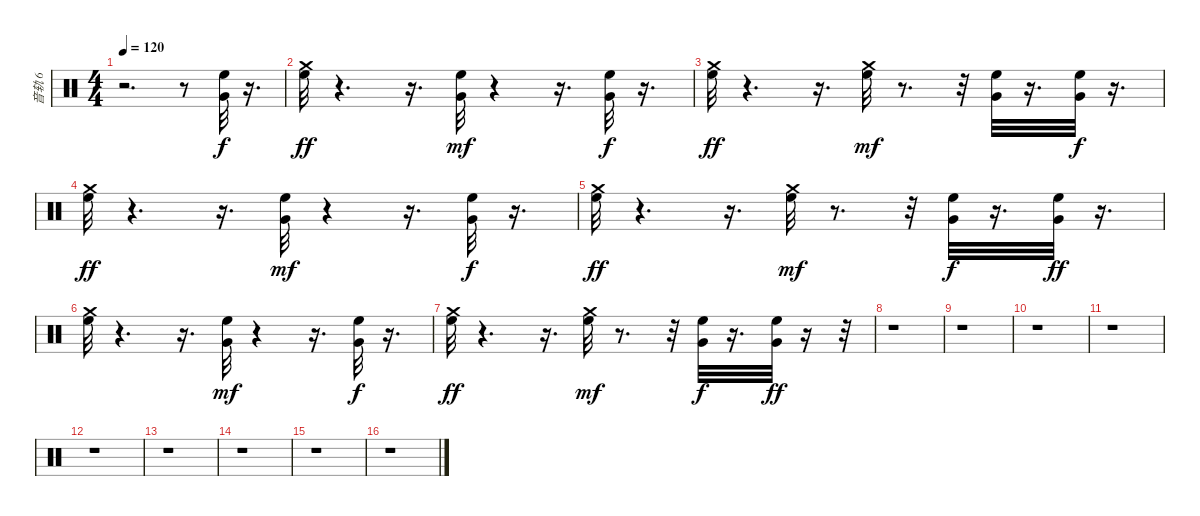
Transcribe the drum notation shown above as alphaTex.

\track ("音轨 6" "音轨 6") {instrument percussion}
\staff {score}
\articulation defaults
\ts (4 4)
\tempo 120
\clef neutral
\ks c
r.2{d dy ff} r.8 ("Very Low Tom (hit)" "High Floor Tom (hit)").32{dy f} r.16{d} |
("High Floor Tom (hit)" "Crash medium (hit)").32{dy ff} r.4{d} r.16{d} ("Very Low Tom (hit)" "High Floor Tom (hit)").32{dy mf} r.4 r.16{d} ("High Floor Tom (hit)" "Very Low Tom (hit)").32{dy f} r.16{d} |
("Crash medium (hit)" "High Floor Tom (hit)").32{dy ff} r.4{d} r.16{d} ("Crash medium (hit)" "High Floor Tom (hit)").32{dy mf} r.8{d} r.32 ("Very Low Tom (hit)" "High Floor Tom (hit)").32 r.16{d} ("Very Low Tom (hit)" "High Floor Tom (hit)").32{dy f} r.16{d} |
("High Floor Tom (hit)" "Crash medium (hit)").32{dy ff} r.4{d} r.16{d} ("Very Low Tom (hit)" "High Floor Tom (hit)").32{dy mf} r.4 r.16{d} ("High Floor Tom (hit)" "Very Low Tom (hit)").32{dy f} r.16{d} |
("Crash medium (hit)" "High Floor Tom (hit)").32{dy ff} r.4{d} r.16{d} ("Crash medium (hit)" "High Floor Tom (hit)").32{dy mf} r.8{d} r.32 ("Very Low Tom (hit)" "High Floor Tom (hit)").32{dy f} r.16{d} ("Very Low Tom (hit)" "High Floor Tom (hit)").32{dy ff} r.16{d} |
("High Floor Tom (hit)" "Crash medium (hit)").32 r.4{d} r.16{d} ("Very Low Tom (hit)" "High Floor Tom (hit)").32{dy mf} r.4 r.16{d} ("High Floor Tom (hit)" "Very Low Tom (hit)").32{dy f} r.16{d} |
("Crash medium (hit)" "High Floor Tom (hit)").32{dy ff} r.4{d} r.16{d} ("Crash medium (hit)" "High Floor Tom (hit)").32{dy mf} r.8{d} r.32 ("Very Low Tom (hit)" "High Floor Tom (hit)").32{dy f} r.16{d} ("Very Low Tom (hit)" "High Floor Tom (hit)").32{dy ff} r.16 r.32 |
r.1 |
r.1 |
r.1 |
r.1 |
r.1 |
r.1 |
r.1 |
r.1 |
r.1
